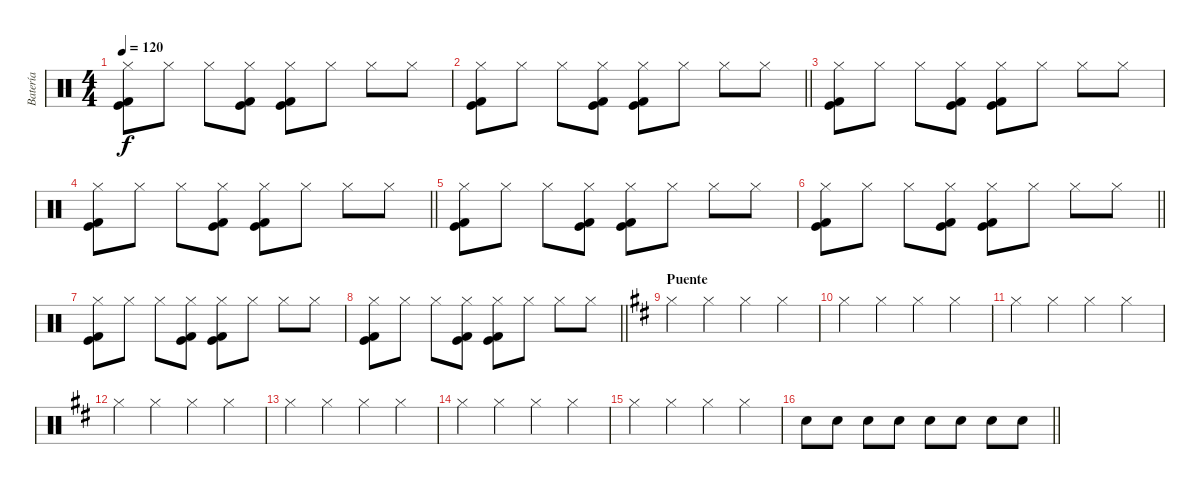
\track ("Batería" "Batería") {instrument percussion}
\staff {score}
\articulation defaults
\ts (4 4)
\tempo 120
\clef neutral
\ks c
("Hi-Hat (closed)" "Kick (hit)" "Kick (hit) 2").8{dy f} "Hi-Hat (closed)".8 "Hi-Hat (closed)".8 ("Hi-Hat (closed)" "Kick (hit)" "Kick (hit) 2").8 ("Hi-Hat (closed)" "Kick (hit)" "Kick (hit) 2").8 "Hi-Hat (closed)".8 "Hi-Hat (closed)".8 "Hi-Hat (closed)".8 |
\barLineRight lightlight
("Hi-Hat (closed)" "Kick (hit)" "Kick (hit) 2").8 "Hi-Hat (closed)".8 "Hi-Hat (closed)".8 ("Hi-Hat (closed)" "Kick (hit)" "Kick (hit) 2").8 ("Hi-Hat (closed)" "Kick (hit)" "Kick (hit) 2").8 "Hi-Hat (closed)".8 "Hi-Hat (closed)".8 "Hi-Hat (closed)".8 |
("Hi-Hat (closed)" "Kick (hit)" "Kick (hit) 2").8 "Hi-Hat (closed)".8 "Hi-Hat (closed)".8 ("Hi-Hat (closed)" "Kick (hit)" "Kick (hit) 2").8 ("Hi-Hat (closed)" "Kick (hit)" "Kick (hit) 2").8 "Hi-Hat (closed)".8 "Hi-Hat (closed)".8 "Hi-Hat (closed)".8 |
\barLineRight lightlight
("Hi-Hat (closed)" "Kick (hit)" "Kick (hit) 2").8 "Hi-Hat (closed)".8 "Hi-Hat (closed)".8 ("Hi-Hat (closed)" "Kick (hit)" "Kick (hit) 2").8 ("Hi-Hat (closed)" "Kick (hit)" "Kick (hit) 2").8 "Hi-Hat (closed)".8 "Hi-Hat (closed)".8 "Hi-Hat (closed)".8 |
("Hi-Hat (closed)" "Kick (hit)" "Kick (hit) 2").8 "Hi-Hat (closed)".8 "Hi-Hat (closed)".8 ("Hi-Hat (closed)" "Kick (hit)" "Kick (hit) 2").8 ("Hi-Hat (closed)" "Kick (hit)" "Kick (hit) 2").8 "Hi-Hat (closed)".8 "Hi-Hat (closed)".8 "Hi-Hat (closed)".8 |
\barLineRight lightlight
("Hi-Hat (closed)" "Kick (hit)" "Kick (hit) 2").8 "Hi-Hat (closed)".8 "Hi-Hat (closed)".8 ("Hi-Hat (closed)" "Kick (hit)" "Kick (hit) 2").8 ("Hi-Hat (closed)" "Kick (hit)" "Kick (hit) 2").8 "Hi-Hat (closed)".8 "Hi-Hat (closed)".8 "Hi-Hat (closed)".8 |
("Hi-Hat (closed)" "Kick (hit)" "Kick (hit) 2").8 "Hi-Hat (closed)".8 "Hi-Hat (closed)".8 ("Hi-Hat (closed)" "Kick (hit)" "Kick (hit) 2").8 ("Hi-Hat (closed)" "Kick (hit)" "Kick (hit) 2").8 "Hi-Hat (closed)".8 "Hi-Hat (closed)".8 "Hi-Hat (closed)".8 |
\barLineRight lightlight
("Hi-Hat (closed)" "Kick (hit)" "Kick (hit) 2").8 "Hi-Hat (closed)".8 "Hi-Hat (closed)".8 ("Hi-Hat (closed)" "Kick (hit)" "Kick (hit) 2").8 ("Hi-Hat (closed)" "Kick (hit)" "Kick (hit) 2").8 "Hi-Hat (closed)".8 "Hi-Hat (closed)".8 "Hi-Hat (closed)".8 |
\section ("" "Puente")
\ks d "Hi-Hat (closed)".4 "Hi-Hat (closed)".4 "Hi-Hat (closed)".4 "Hi-Hat (closed)".4
|
"Hi-Hat (closed)".4 "Hi-Hat (closed)".4 "Hi-Hat (closed)".4 "Hi-Hat (closed)".4 |
"Hi-Hat (closed)".4 "Hi-Hat (closed)".4 "Hi-Hat (closed)".4 "Hi-Hat (closed)".4 |
"Hi-Hat (closed)".4 "Hi-Hat (closed)".4 "Hi-Hat (closed)".4 "Hi-Hat (closed)".4 |
"Hi-Hat (closed)".4 "Hi-Hat (closed)".4 "Hi-Hat (closed)".4 "Hi-Hat (closed)".4 |
"Hi-Hat (closed)".4 "Hi-Hat (closed)".4 "Hi-Hat (closed)".4 "Hi-Hat (closed)".4 |
"Hi-Hat (closed)".4 "Hi-Hat (closed)".4 "Hi-Hat (closed)".4 "Hi-Hat (closed)".4 |
\barLineRight lightlight "Snare (hit) 2".8 "Snare (hit) 2".8 "Snare (hit) 2".8 "Snare (hit) 2".8 "Snare (hit) 2".8 "Snare (hit) 2".8 "Snare (hit) 2".8 "Snare (hit) 2".8
